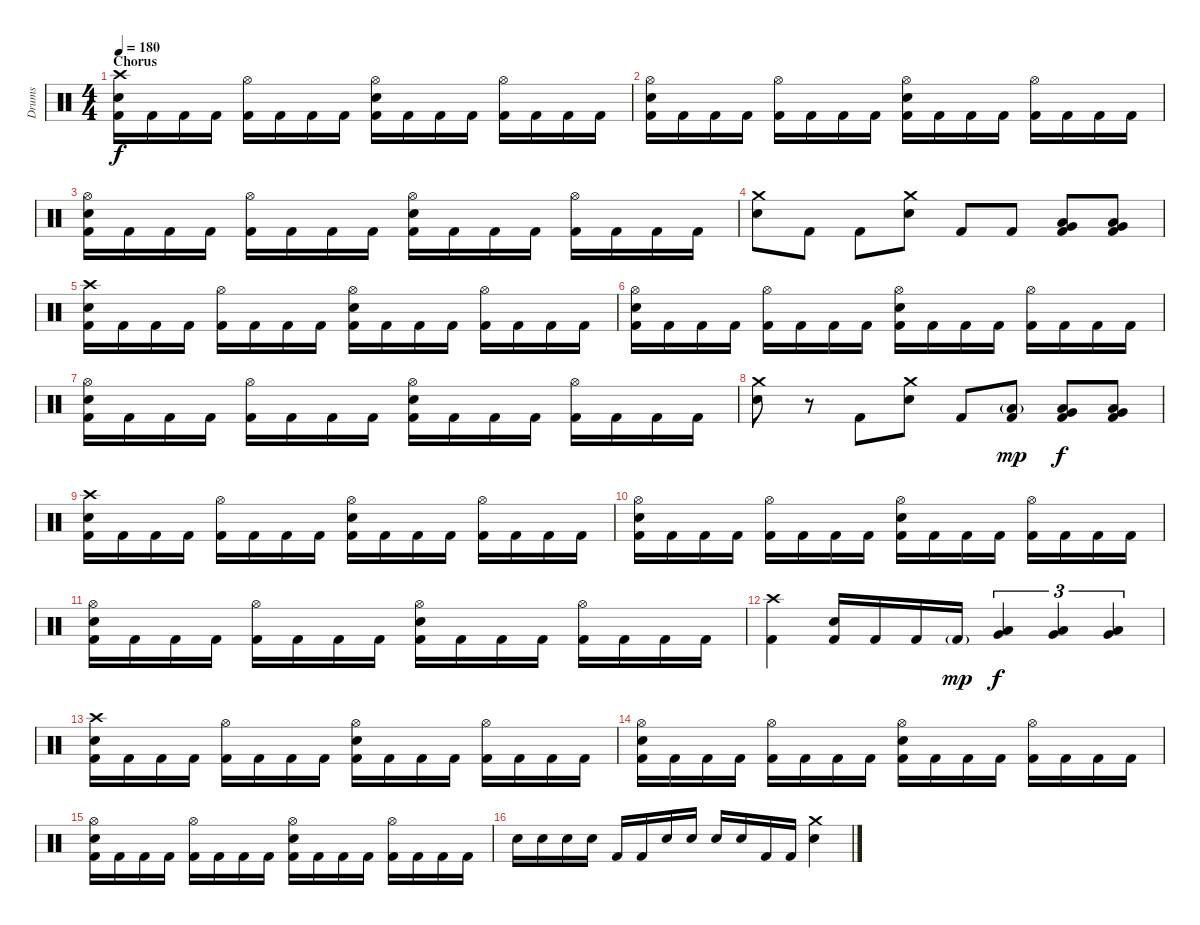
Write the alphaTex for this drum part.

\track ("Drums" "Drums") {instrument percussion}
\staff {score}
\articulation defaults
\ts (4 4)
\section ("" "Chorus")
\tempo 180
\clef neutral
\ks c
("Crash high (hit)" "Electric Snare (hit)" "Kick (hit) 2").16{dy f} "Kick (hit) 2".16 "Kick (hit) 2".16 "Kick (hit) 2".16 ("Hi-Hat (open)" "Kick (hit) 2").16 "Kick (hit) 2".16 "Kick (hit) 2".16 "Kick (hit) 2".16 ("Hi-Hat (open)" "Electric Snare (hit)" "Kick (hit) 2").16 "Kick (hit) 2".16 "Kick (hit) 2".16 "Kick (hit) 2".16 ("Hi-Hat (open)" "Kick (hit) 2").16 "Kick (hit) 2".16 "Kick (hit) 2".16 "Kick (hit) 2".16 |
("Hi-Hat (open)" "Electric Snare (hit)" "Kick (hit) 2").16 "Kick (hit) 2".16 "Kick (hit) 2".16 "Kick (hit) 2".16 ("Hi-Hat (open)" "Kick (hit) 2").16 "Kick (hit) 2".16 "Kick (hit) 2".16 "Kick (hit) 2".16 ("Hi-Hat (open)" "Electric Snare (hit)" "Kick (hit) 2").16 "Kick (hit) 2".16 "Kick (hit) 2".16 "Kick (hit) 2".16 ("Hi-Hat (open)" "Kick (hit) 2").16 "Kick (hit) 2".16 "Kick (hit) 2".16 "Kick (hit) 2".16 |
("Hi-Hat (open)" "Electric Snare (hit)" "Kick (hit) 2").16 "Kick (hit) 2".16 "Kick (hit) 2".16 "Kick (hit) 2".16 ("Hi-Hat (open)" "Kick (hit) 2").16 "Kick (hit) 2".16 "Kick (hit) 2".16 "Kick (hit) 2".16 ("Hi-Hat (open)" "Electric Snare (hit)" "Kick (hit) 2").16 "Kick (hit) 2".16 "Kick (hit) 2".16 "Kick (hit) 2".16 ("Hi-Hat (open)" "Kick (hit) 2").16 "Kick (hit) 2".16 "Kick (hit) 2".16 "Kick (hit) 2".16 |
("Crash medium (hit)" "Electric Snare (hit)").8 "Kick (hit) 2".8 "Kick (hit) 2".8 ("Crash medium (hit)" "Electric Snare (hit)").8 "Kick (hit) 2".8 "Kick (hit) 2".8 ("Low Tom (hit)" "Very Low Tom (hit)" "Kick (hit) 2").8 ("Very Low Tom (hit)" "Low Floor Tom (hit)" "Kick (hit) 2").8 |
("Crash high (hit)" "Electric Snare (hit)" "Kick (hit) 2").16 "Kick (hit) 2".16 "Kick (hit) 2".16 "Kick (hit) 2".16 ("Hi-Hat (open)" "Kick (hit) 2").16 "Kick (hit) 2".16 "Kick (hit) 2".16 "Kick (hit) 2".16 ("Hi-Hat (open)" "Electric Snare (hit)" "Kick (hit) 2").16 "Kick (hit) 2".16 "Kick (hit) 2".16 "Kick (hit) 2".16 ("Hi-Hat (open)" "Kick (hit) 2").16 "Kick (hit) 2".16 "Kick (hit) 2".16 "Kick (hit) 2".16 |
("Hi-Hat (open)" "Electric Snare (hit)" "Kick (hit) 2").16 "Kick (hit) 2".16 "Kick (hit) 2".16 "Kick (hit) 2".16 ("Hi-Hat (open)" "Kick (hit) 2").16 "Kick (hit) 2".16 "Kick (hit) 2".16 "Kick (hit) 2".16 ("Hi-Hat (open)" "Electric Snare (hit)" "Kick (hit) 2").16 "Kick (hit) 2".16 "Kick (hit) 2".16 "Kick (hit) 2".16 ("Hi-Hat (open)" "Kick (hit) 2").16 "Kick (hit) 2".16 "Kick (hit) 2".16 "Kick (hit) 2".16 |
("Hi-Hat (open)" "Electric Snare (hit)" "Kick (hit) 2").16 "Kick (hit) 2".16 "Kick (hit) 2".16 "Kick (hit) 2".16 ("Hi-Hat (open)" "Kick (hit) 2").16 "Kick (hit) 2".16 "Kick (hit) 2".16 "Kick (hit) 2".16 ("Hi-Hat (open)" "Electric Snare (hit)" "Kick (hit) 2").16 "Kick (hit) 2".16 "Kick (hit) 2".16 "Kick (hit) 2".16 ("Hi-Hat (open)" "Kick (hit) 2").16 "Kick (hit) 2".16 "Kick (hit) 2".16 "Kick (hit) 2".16 |
("Crash medium (hit)" "Electric Snare (hit)").8 r.8 "Kick (hit) 2".8 ("Crash medium (hit)" "Electric Snare (hit)").8 "Kick (hit) 2".8 ("Low Tom (hit)"{g} "Kick (hit) 2").8{dy mp} ("Low Tom (hit)" "Very Low Tom (hit)" "Kick (hit) 2").8{dy f} ("Very Low Tom (hit)" "Low Floor Tom (hit)" "Kick (hit) 2").8 |
("Crash high (hit)" "Electric Snare (hit)" "Kick (hit) 2").16 "Kick (hit) 2".16 "Kick (hit) 2".16 "Kick (hit) 2".16 ("Hi-Hat (open)" "Kick (hit) 2").16 "Kick (hit) 2".16 "Kick (hit) 2".16 "Kick (hit) 2".16 ("Hi-Hat (open)" "Electric Snare (hit)" "Kick (hit) 2").16 "Kick (hit) 2".16 "Kick (hit) 2".16 "Kick (hit) 2".16 ("Hi-Hat (open)" "Kick (hit) 2").16 "Kick (hit) 2".16 "Kick (hit) 2".16 "Kick (hit) 2".16 |
("Hi-Hat (open)" "Electric Snare (hit)" "Kick (hit) 2").16 "Kick (hit) 2".16 "Kick (hit) 2".16 "Kick (hit) 2".16 ("Hi-Hat (open)" "Kick (hit) 2").16 "Kick (hit) 2".16 "Kick (hit) 2".16 "Kick (hit) 2".16 ("Hi-Hat (open)" "Electric Snare (hit)" "Kick (hit) 2").16 "Kick (hit) 2".16 "Kick (hit) 2".16 "Kick (hit) 2".16 ("Hi-Hat (open)" "Kick (hit) 2").16 "Kick (hit) 2".16 "Kick (hit) 2".16 "Kick (hit) 2".16 |
("Hi-Hat (open)" "Electric Snare (hit)" "Kick (hit) 2").16 "Kick (hit) 2".16 "Kick (hit) 2".16 "Kick (hit) 2".16 ("Hi-Hat (open)" "Kick (hit) 2").16 "Kick (hit) 2".16 "Kick (hit) 2".16 "Kick (hit) 2".16 ("Hi-Hat (open)" "Electric Snare (hit)" "Kick (hit) 2").16 "Kick (hit) 2".16 "Kick (hit) 2".16 "Kick (hit) 2".16 ("Hi-Hat (open)" "Kick (hit) 2").16 "Kick (hit) 2".16 "Kick (hit) 2".16 "Kick (hit) 2".16 |
("Crash high (hit)" "Kick (hit) 2").4 ("Electric Snare (hit)" "Kick (hit) 2").16 "Kick (hit) 2".16 "Kick (hit) 2".16 "Kick (hit) 2"{g}.16{dy mp} ("Low Tom (hit)" "Very Low Tom (hit)").4{tu (3 2) dy f} ("Low Tom (hit)" "Very Low Tom (hit)").4{tu (3 2)} ("Very Low Tom (hit)" "Low Floor Tom (hit)").4{tu (3 2)} |
("Crash high (hit)" "Electric Snare (hit)" "Kick (hit) 2").16 "Kick (hit) 2".16 "Kick (hit) 2".16 "Kick (hit) 2".16 ("Hi-Hat (open)" "Kick (hit) 2").16 "Kick (hit) 2".16 "Kick (hit) 2".16 "Kick (hit) 2".16 ("Hi-Hat (open)" "Electric Snare (hit)" "Kick (hit) 2").16 "Kick (hit) 2".16 "Kick (hit) 2".16 "Kick (hit) 2".16 ("Hi-Hat (open)" "Kick (hit) 2").16 "Kick (hit) 2".16 "Kick (hit) 2".16 "Kick (hit) 2".16 |
("Hi-Hat (open)" "Electric Snare (hit)" "Kick (hit) 2").16 "Kick (hit) 2".16 "Kick (hit) 2".16 "Kick (hit) 2".16 ("Hi-Hat (open)" "Kick (hit) 2").16 "Kick (hit) 2".16 "Kick (hit) 2".16 "Kick (hit) 2".16 ("Hi-Hat (open)" "Electric Snare (hit)" "Kick (hit) 2").16 "Kick (hit) 2".16 "Kick (hit) 2".16 "Kick (hit) 2".16 ("Hi-Hat (open)" "Kick (hit) 2").16 "Kick (hit) 2".16 "Kick (hit) 2".16 "Kick (hit) 2".16 |
("Hi-Hat (open)" "Electric Snare (hit)" "Kick (hit) 2").16 "Kick (hit) 2".16 "Kick (hit) 2".16 "Kick (hit) 2".16 ("Hi-Hat (open)" "Kick (hit) 2").16 "Kick (hit) 2".16 "Kick (hit) 2".16 "Kick (hit) 2".16 ("Hi-Hat (open)" "Electric Snare (hit)" "Kick (hit) 2").16 "Kick (hit) 2".16 "Kick (hit) 2".16 "Kick (hit) 2".16 ("Hi-Hat (open)" "Kick (hit) 2").16 "Kick (hit) 2".16 "Kick (hit) 2".16 "Kick (hit) 2".16 |
"Electric Snare (hit)".16 "Electric Snare (hit)".16 "Electric Snare (hit)".16 "Electric Snare (hit)".16 "Kick (hit) 2".16 "Kick (hit) 2".16 "Electric Snare (hit)".16 "Electric Snare (hit)".16 "Electric Snare (hit)".16 "Electric Snare (hit)".16 "Kick (hit) 2".16 "Kick (hit) 2".16 ("Crash medium (hit)" "Electric Snare (hit)").4
